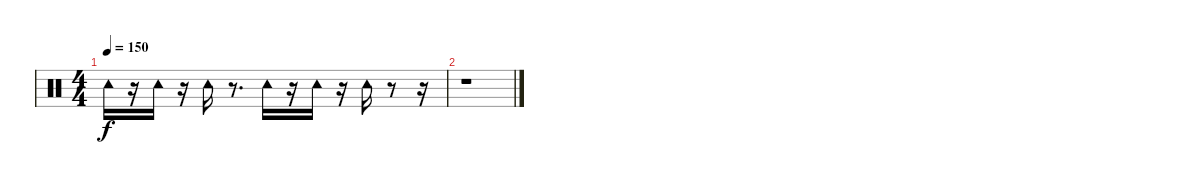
\track "" {instrument percussion}
\staff {score}
\articulation defaults
\ts (4 4)
\tempo 150
\clef neutral
\ks c "Tambourine (hit)".16{dy f}
r.16 "Tambourine (hit)".16 r.16 "Tambourine (hit)".16 r.8{d} "Tambourine (hit)".16 r.16 "Tambourine (hit)".16 r.16 "Tambourine (hit)".16 r.8 r.16 |
r.1
